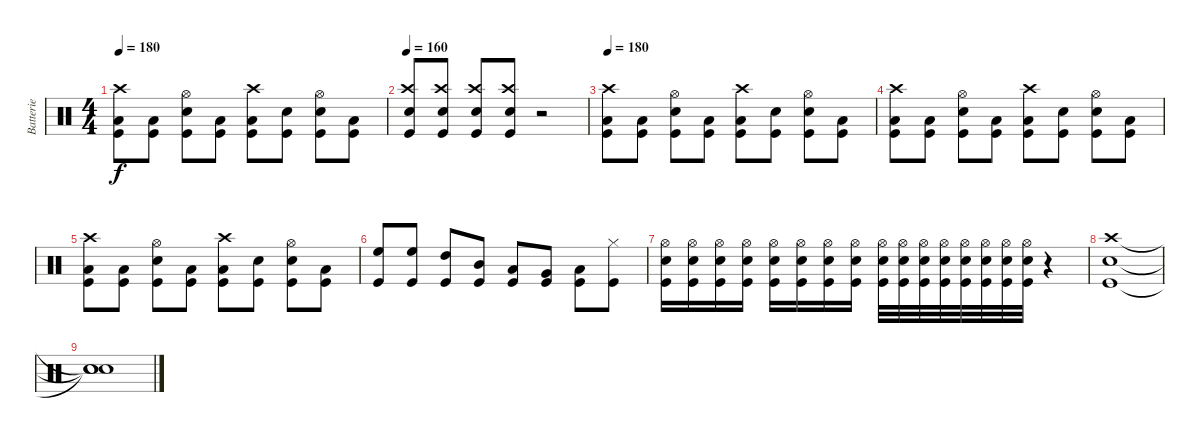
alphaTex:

\track ("Batterie" "Batterie") {instrument percussion}
\staff {score}
\articulation defaults
\ts (4 4)
\tempo 180
\clef neutral
\ks c
("Kick (hit)" "Low Tom (hit)" "Crash high (hit)").8{dy f} ("Kick (hit)" "Low Tom (hit)").8 ("Kick (hit)" "Snare (hit) 2" "Hi-Hat (open)").8 ("Kick (hit)" "Low Tom (hit)").8 ("Kick (hit)" "Low Tom (hit)" "Crash high (hit)").8 ("Kick (hit)" "Snare (hit) 2").8 ("Kick (hit)" "Snare (hit) 2" "Hi-Hat (open)").8 ("Low Floor Tom (hit)" "Kick (hit)").8 |
\tempo 160
("Snare (hit) 2" "Kick (hit)" "Crash high (hit)").8 ("Snare (hit) 2" "Kick (hit)" "Crash high (hit)").8 ("Snare (hit) 2" "Kick (hit)" "Crash high (hit)").8 ("Snare (hit) 2" "Kick (hit)" "Crash high (hit)").8 r.2 |
\tempo 180
("Kick (hit)" "Low Tom (hit)" "Crash high (hit)").8 ("Kick (hit)" "Low Tom (hit)").8 ("Kick (hit)" "Snare (hit) 2" "Hi-Hat (open)").8 ("Kick (hit)" "Low Tom (hit)").8 ("Kick (hit)" "Low Tom (hit)" "Crash high (hit)").8 ("Kick (hit)" "Snare (hit) 2").8 ("Kick (hit)" "Snare (hit) 2" "Hi-Hat (open)").8 ("Low Floor Tom (hit)" "Kick (hit)").8 |
("Kick (hit)" "Low Tom (hit)" "Crash high (hit)").8 ("Kick (hit)" "Low Tom (hit)").8 ("Kick (hit)" "Snare (hit) 2" "Hi-Hat (open)").8 ("Kick (hit)" "Low Tom (hit)").8 ("Kick (hit)" "Low Tom (hit)" "Crash high (hit)").8 ("Kick (hit)" "Snare (hit) 2").8 ("Kick (hit)" "Snare (hit) 2" "Hi-Hat (open)").8 ("Low Floor Tom (hit)" "Kick (hit)").8 |
("Kick (hit)" "Low Tom (hit)" "Crash high (hit)").8 ("Kick (hit)" "Low Tom (hit)").8 ("Kick (hit)" "Snare (hit) 2" "Hi-Hat (open)").8 ("Kick (hit)" "Low Tom (hit)").8 ("Kick (hit)" "Low Tom (hit)" "Crash high (hit)").8 ("Kick (hit)" "Snare (hit) 2").8 ("Kick (hit)" "Snare (hit) 2" "Hi-Hat (open)").8 ("Low Floor Tom (hit)" "Kick (hit)").8 |
("Kick (hit)" "High Floor Tom (hit)").8 ("Kick (hit)" "High Floor Tom (hit)").8 ("Kick (hit)" "High Tom (hit)").8 ("Kick (hit)" "Mid Tom (hit)").8 ("Kick (hit)" "Low Tom (hit)").8 ("Kick (hit)" "Very Low Tom (hit)").8 ("Kick (hit)" "Low Floor Tom (hit)").8 ("Kick (hit)" "Hi-Hat (closed)").8 |
("Hi-Hat (open)" "Snare (hit) 2" "Kick (hit)").16 ("Hi-Hat (open)" "Snare (hit) 2" "Kick (hit)").16 ("Hi-Hat (open)" "Snare (hit) 2" "Kick (hit)").16 ("Hi-Hat (open)" "Snare (hit) 2" "Kick (hit)").16 ("Hi-Hat (open)" "Snare (hit) 2" "Kick (hit)").16 ("Hi-Hat (open)" "Snare (hit) 2" "Kick (hit)").16 ("Hi-Hat (open)" "Snare (hit) 2" "Kick (hit)").16 ("Hi-Hat (open)" "Snare (hit) 2" "Kick (hit)").16 ("Hi-Hat (open)" "Snare (hit) 2" "Kick (hit)").32 ("Hi-Hat (open)" "Snare (hit) 2" "Kick (hit)").32 ("Hi-Hat (open)" "Snare (hit) 2" "Kick (hit)").32 ("Hi-Hat (open)" "Snare (hit) 2" "Kick (hit)").32 ("Hi-Hat (open)" "Snare (hit) 2" "Kick (hit)").32 ("Hi-Hat (open)" "Snare (hit) 2" "Kick (hit)").32 ("Hi-Hat (open)" "Snare (hit) 2" "Kick (hit)").32 ("Hi-Hat (open)" "Snare (hit) 2" "Kick (hit)").32 r.4 |
("Crash high (hit)" "Snare (hit) 2" "Kick (hit)").1 |
("Snare (hit)"{t} "Snare (hit)"{t} "Snare (hit)"{t}).1
